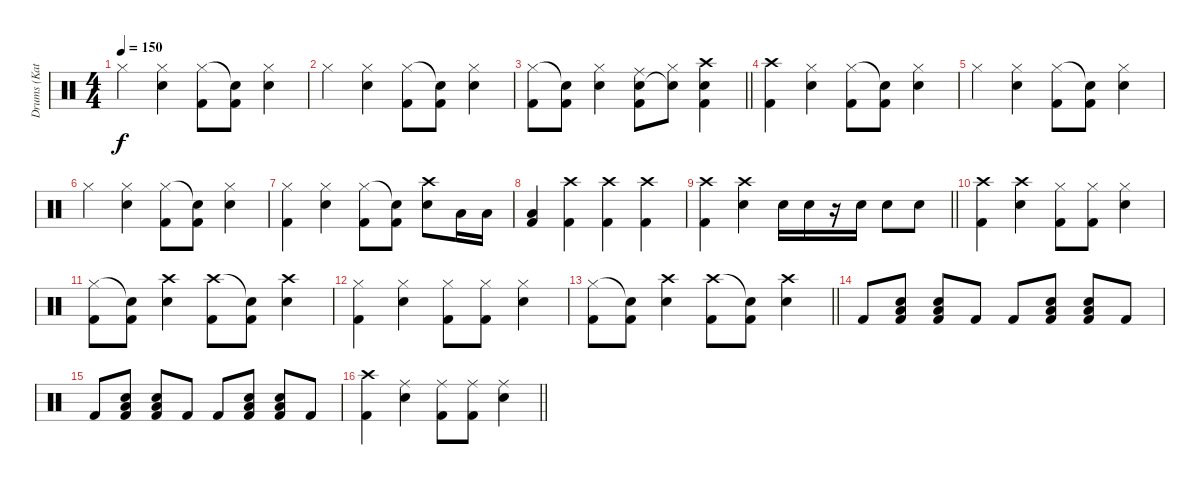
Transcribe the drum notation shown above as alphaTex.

\track ("Drums (Katsuji)" "Drums (Kat") {instrument percussion}
\staff {score}
\articulation defaults
\ts (4 4)
\tempo 150
\clef neutral
\ks c "Hi-Hat (closed)".4{dy f}
("Hi-Hat (closed)" "Snare (hit) 2").4 ("Hi-Hat (closed)" "Kick (hit) 2").8 ("Snare (hit)"{t} "Kick (hit) 2").8 ("Hi-Hat (closed)" "Snare (hit) 2").4 |
"Hi-Hat (closed)".4 ("Hi-Hat (closed)" "Snare (hit) 2").4 ("Hi-Hat (closed)" "Kick (hit) 2").8 ("Snare (hit)"{t} "Kick (hit) 2").8 ("Hi-Hat (closed)" "Snare (hit) 2").4 |
\barLineRight lightlight
("Hi-Hat (closed)" "Kick (hit) 2").8 ("Snare (hit)"{t} "Kick (hit) 2").8 ("Hi-Hat (closed)" "Snare (hit) 2").4 ("Ride (middle)" "Snare (hit) 2" "Kick (hit) 2").8 ("Hi-Hat (closed)" "Snare (hit)"{t}).8 ("Crash high (hit)" "Snare (hit) 2" "Kick (hit) 2").4 |
("Crash high (hit)" "Kick (hit) 2").4 ("Hi-Hat (closed)" "Snare (hit) 2").4 ("Hi-Hat (closed)" "Kick (hit) 2").8 ("Snare (hit)"{t} "Kick (hit) 2").8 ("Hi-Hat (closed)" "Snare (hit) 2").4 |
"Hi-Hat (closed)".4 ("Hi-Hat (closed)" "Snare (hit) 2").4 ("Hi-Hat (closed)" "Kick (hit) 2").8 ("Snare (hit)"{t} "Kick (hit) 2").8 ("Hi-Hat (closed)" "Snare (hit) 2").4 |
"Hi-Hat (closed)".4 ("Hi-Hat (closed)" "Snare (hit) 2").4 ("Hi-Hat (closed)" "Kick (hit) 2").8 ("Snare (hit)"{t} "Kick (hit) 2").8 ("Hi-Hat (closed)" "Snare (hit) 2").4 |
("Hi-Hat (closed)" "Kick (hit) 2").4 ("Hi-Hat (closed)" "Snare (hit) 2").4 ("Hi-Hat (closed)" "Kick (hit) 2").8 ("Snare (hit)"{t} "Kick (hit) 2").8 ("Crash high (hit)" "Snare (hit) 2").8 "Low Tom (hit)".16 "Low Tom (hit)".16 |
("Low Tom (hit)" "Kick (hit) 2").4 ("Crash high (hit)" "Kick (hit) 2").4 ("Crash high (hit)" "Kick (hit) 2").4 ("Crash high (hit)" "Kick (hit) 2").4 |
\barLineRight lightlight
("Crash high (hit)" "Kick (hit) 2").4 ("Crash high (hit)" "Snare (hit) 2").4 "Snare (hit) 2".16 "Snare (hit) 2".16 r.16 "Snare (hit) 2".16 "Snare (hit) 2".8 "Snare (hit) 2".8 |
("Crash high (hit)" "Kick (hit) 2").4 ("Crash high (hit)" "Snare (hit) 2").4 ("Hi-Hat (closed)" "Kick (hit) 2").8 ("Hi-Hat (closed)" "Kick (hit) 2").8 ("Hi-Hat (closed)" "Snare (hit) 2").4 |
("Hi-Hat (closed)" "Kick (hit) 2").8 ("Snare (hit)"{t} "Kick (hit) 2").8 ("Crash high (hit)" "Snare (hit) 2").4 ("Crash high (hit)" "Kick (hit) 2").8 ("Snare (hit)"{t} "Kick (hit) 2").8 ("Crash high (hit)" "Snare (hit) 2").4 |
("Hi-Hat (closed)" "Kick (hit) 2").4 ("Hi-Hat (closed)" "Snare (hit) 2").4 ("Hi-Hat (closed)" "Kick (hit) 2").8 ("Hi-Hat (closed)" "Kick (hit) 2").8 ("Hi-Hat (closed)" "Snare (hit) 2").4 |
\barLineRight lightlight
("Hi-Hat (closed)" "Kick (hit) 2").8 ("Snare (hit)"{t} "Kick (hit) 2").8 ("Crash high (hit)" "Snare (hit) 2").4 ("Crash high (hit)" "Kick (hit) 2").8 ("Snare (hit)"{t} "Kick (hit) 2").8 ("Crash high (hit)" "Snare (hit) 2").4 |
"Kick (hit) 2".8 ("Snare (hit) 2" "Low Tom (hit)" "Kick (hit) 2").8 ("Snare (hit) 2" "Low Tom (hit)" "Kick (hit) 2").8 "Kick (hit) 2".8 "Kick (hit) 2".8 ("Snare (hit) 2" "Low Tom (hit)" "Kick (hit) 2").8 ("Snare (hit) 2" "Low Tom (hit)" "Kick (hit) 2").8 "Kick (hit) 2".8 |
"Kick (hit) 2".8 ("Snare (hit) 2" "Low Tom (hit)" "Kick (hit) 2").8 ("Snare (hit) 2" "Low Tom (hit)" "Kick (hit) 2").8 "Kick (hit) 2".8 "Kick (hit) 2".8 ("Snare (hit) 2" "Low Tom (hit)" "Kick (hit) 2").8 ("Snare (hit) 2" "Low Tom (hit)" "Kick (hit) 2").8 "Kick (hit) 2".8 |
\barLineRight lightlight
("Crash high (hit)" "Kick (hit) 2").4 ("Ride (middle)" "Snare (hit) 2").4 ("Ride (middle)" "Kick (hit) 2").8 ("Ride (middle)" "Kick (hit) 2").8 ("Ride (middle)" "Snare (hit) 2").4
